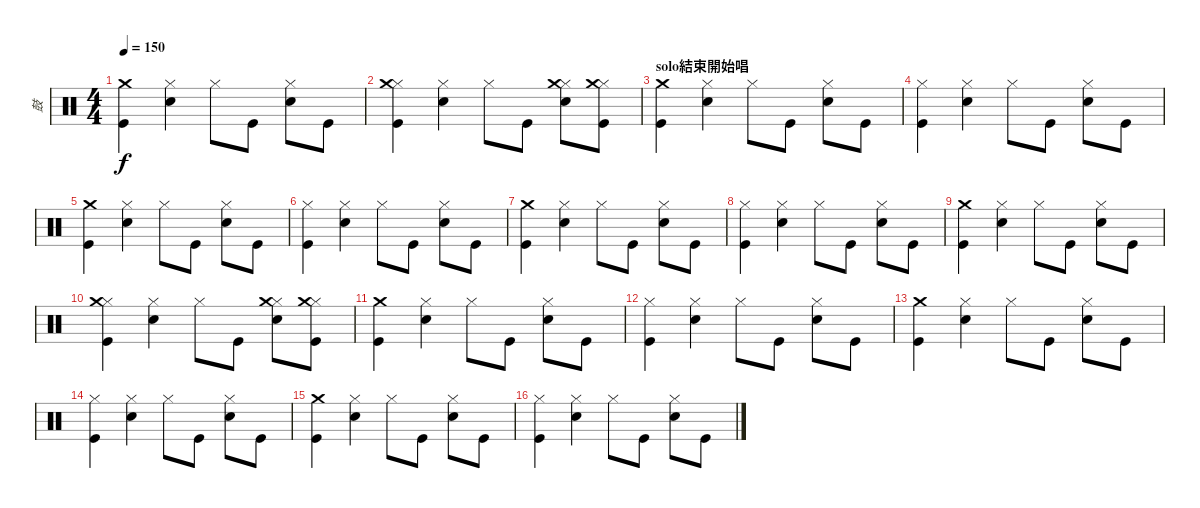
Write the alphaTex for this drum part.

\track ("鼓" "鼓") {instrument percussion}
\staff {score}
\articulation defaults
\ts (4 4)
\tempo 150
\clef neutral
\ks c
("Kick (hit)" "Crash medium (hit)").4{dy f} ("Snare (hit) 2" "Hi-Hat (closed)").4 "Hi-Hat (closed)".8 "Kick (hit)".8 ("Snare (hit) 2" "Hi-Hat (closed)").8 "Kick (hit)".8 |
("Kick (hit)" "Hi-Hat (closed)" "Crash medium (hit)").4 ("Snare (hit) 2" "Hi-Hat (closed)").4 "Hi-Hat (closed)".8 "Kick (hit)".8 ("Snare (hit) 2" "Hi-Hat (closed)" "Crash medium (hit)").8 ("Kick (hit)" "Hi-Hat (closed)" "Crash medium (hit)").8 |
\section ("" "solo結束開始唱")
("Kick (hit)" "Crash medium (hit)").4 ("Snare (hit) 2" "Hi-Hat (closed)").4 "Hi-Hat (closed)".8 "Kick (hit)".8 ("Snare (hit) 2" "Hi-Hat (closed)").8 "Kick (hit)".8 |
("Kick (hit)" "Hi-Hat (closed)").4 ("Snare (hit) 2" "Hi-Hat (closed)").4 "Hi-Hat (closed)".8 "Kick (hit)".8 ("Snare (hit) 2" "Hi-Hat (closed)").8 "Kick (hit)".8 |
("Kick (hit)" "Crash medium (hit)").4 ("Snare (hit) 2" "Hi-Hat (closed)").4 "Hi-Hat (closed)".8 "Kick (hit)".8 ("Snare (hit) 2" "Hi-Hat (closed)").8 "Kick (hit)".8 |
("Kick (hit)" "Hi-Hat (closed)").4 ("Snare (hit) 2" "Hi-Hat (closed)").4 "Hi-Hat (closed)".8 "Kick (hit)".8 ("Snare (hit) 2" "Hi-Hat (closed)").8 "Kick (hit)".8 |
("Kick (hit)" "Crash medium (hit)").4 ("Snare (hit) 2" "Hi-Hat (closed)").4 "Hi-Hat (closed)".8 "Kick (hit)".8 ("Snare (hit) 2" "Hi-Hat (closed)").8 "Kick (hit)".8 |
("Kick (hit)" "Hi-Hat (closed)").4 ("Snare (hit) 2" "Hi-Hat (closed)").4 "Hi-Hat (closed)".8 "Kick (hit)".8 ("Snare (hit) 2" "Hi-Hat (closed)").8 "Kick (hit)".8 |
("Kick (hit)" "Crash medium (hit)").4 ("Snare (hit) 2" "Hi-Hat (closed)").4 "Hi-Hat (closed)".8 "Kick (hit)".8 ("Snare (hit) 2" "Hi-Hat (closed)").8 "Kick (hit)".8 |
("Kick (hit)" "Hi-Hat (closed)" "Crash medium (hit)").4 ("Snare (hit) 2" "Hi-Hat (closed)").4 "Hi-Hat (closed)".8 "Kick (hit)".8 ("Snare (hit) 2" "Hi-Hat (closed)" "Crash medium (hit)").8 ("Kick (hit)" "Hi-Hat (closed)" "Crash medium (hit)").8 |
("Kick (hit)" "Crash medium (hit)").4 ("Snare (hit) 2" "Hi-Hat (closed)").4 "Hi-Hat (closed)".8 "Kick (hit)".8 ("Snare (hit) 2" "Hi-Hat (closed)").8 "Kick (hit)".8 |
("Kick (hit)" "Hi-Hat (closed)").4 ("Snare (hit) 2" "Hi-Hat (closed)").4 "Hi-Hat (closed)".8 "Kick (hit)".8 ("Snare (hit) 2" "Hi-Hat (closed)").8 "Kick (hit)".8 |
("Kick (hit)" "Crash medium (hit)").4 ("Snare (hit) 2" "Hi-Hat (closed)").4 "Hi-Hat (closed)".8 "Kick (hit)".8 ("Snare (hit) 2" "Hi-Hat (closed)").8 "Kick (hit)".8 |
("Kick (hit)" "Hi-Hat (closed)").4 ("Snare (hit) 2" "Hi-Hat (closed)").4 "Hi-Hat (closed)".8 "Kick (hit)".8 ("Snare (hit) 2" "Hi-Hat (closed)").8 "Kick (hit)".8 |
("Kick (hit)" "Crash medium (hit)").4 ("Snare (hit) 2" "Hi-Hat (closed)").4 "Hi-Hat (closed)".8 "Kick (hit)".8 ("Snare (hit) 2" "Hi-Hat (closed)").8 "Kick (hit)".8 |
("Kick (hit)" "Hi-Hat (closed)").4 ("Snare (hit) 2" "Hi-Hat (closed)").4 "Hi-Hat (closed)".8 "Kick (hit)".8 ("Snare (hit) 2" "Hi-Hat (closed)").8 "Kick (hit)".8
